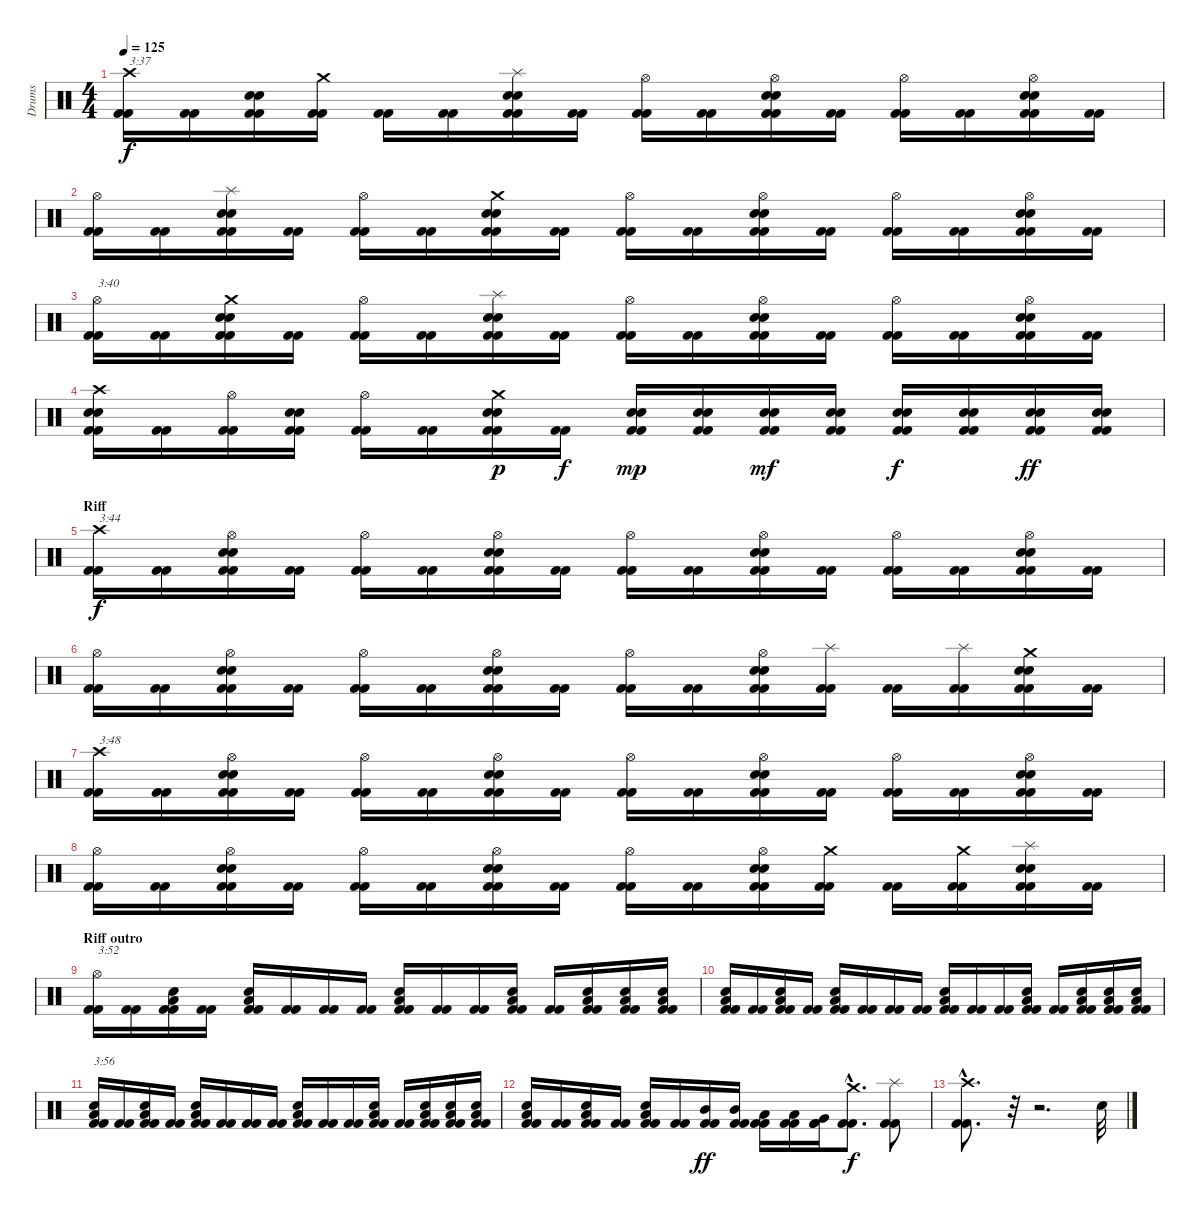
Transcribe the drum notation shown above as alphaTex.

\track ("Drums" "Drums") {instrument percussion}
\staff {score}
\articulation defaults
\ts (4 4)
\tempo 125
\clef neutral
\ks c
("Crash high (hit)" "Kick (hit) 2" "Kick (hit) 2").16{txt "3:37" dy f} ("Kick (hit) 2" "Kick (hit) 2").16 ("Snare (hit) 2" "Snare (hit) 2" "Kick (hit) 2" "Kick (hit) 2").16 ("Crash medium (hit)" "Kick (hit) 2" "Kick (hit) 2").16 ("Kick (hit) 2" "Kick (hit) 2").16 ("Kick (hit) 2" "Kick (hit) 2").16 ("Splash (hit)" "Snare (hit) 2" "Snare (hit) 2" "Kick (hit) 2" "Kick (hit) 2").16 ("Kick (hit) 2" "Kick (hit) 2").16 ("Hi-Hat (open)" "Kick (hit) 2" "Kick (hit) 2").16 ("Kick (hit) 2" "Kick (hit) 2").16 ("Hi-Hat (open)" "Snare (hit) 2" "Snare (hit) 2" "Kick (hit) 2" "Kick (hit) 2").16 ("Kick (hit) 2" "Kick (hit) 2").16 ("Hi-Hat (open)" "Kick (hit) 2" "Kick (hit) 2").16 ("Kick (hit) 2" "Kick (hit) 2").16 ("Hi-Hat (open)" "Snare (hit) 2" "Snare (hit) 2" "Kick (hit) 2" "Kick (hit) 2").16 ("Kick (hit) 2" "Kick (hit) 2").16 |
("Hi-Hat (open)" "Kick (hit) 2" "Kick (hit) 2").16 ("Kick (hit) 2" "Kick (hit) 2").16 ("Splash (hit)" "Snare (hit) 2" "Snare (hit) 2" "Kick (hit) 2" "Kick (hit) 2").16 ("Kick (hit) 2" "Kick (hit) 2").16 ("Hi-Hat (open)" "Kick (hit) 2" "Kick (hit) 2").16 ("Kick (hit) 2" "Kick (hit) 2").16 ("Crash medium (hit)" "Snare (hit) 2" "Snare (hit) 2" "Kick (hit) 2" "Kick (hit) 2").16 ("Kick (hit) 2" "Kick (hit) 2").16 ("Hi-Hat (open)" "Kick (hit) 2" "Kick (hit) 2").16 ("Kick (hit) 2" "Kick (hit) 2").16 ("Hi-Hat (open)" "Snare (hit) 2" "Snare (hit) 2" "Kick (hit) 2" "Kick (hit) 2").16 ("Kick (hit) 2" "Kick (hit) 2").16 ("Hi-Hat (open)" "Kick (hit) 2" "Kick (hit) 2").16 ("Kick (hit) 2" "Kick (hit) 2").16 ("Hi-Hat (open)" "Snare (hit) 2" "Snare (hit) 2" "Kick (hit) 2" "Kick (hit) 2").16 ("Kick (hit) 2" "Kick (hit) 2").16 |
("Hi-Hat (open)" "Kick (hit) 2" "Kick (hit) 2").16{txt "3:40"} ("Kick (hit) 2" "Kick (hit) 2").16 ("Crash medium (hit)" "Snare (hit) 2" "Snare (hit) 2" "Kick (hit) 2" "Kick (hit) 2").16 ("Kick (hit) 2" "Kick (hit) 2").16 ("Hi-Hat (open)" "Kick (hit) 2" "Kick (hit) 2").16 ("Kick (hit) 2" "Kick (hit) 2").16 ("Splash (hit)" "Snare (hit) 2" "Snare (hit) 2" "Kick (hit) 2" "Kick (hit) 2").16 ("Kick (hit) 2" "Kick (hit) 2").16 ("Hi-Hat (open)" "Kick (hit) 2" "Kick (hit) 2").16 ("Kick (hit) 2" "Kick (hit) 2").16 ("Hi-Hat (open)" "Snare (hit) 2" "Snare (hit) 2" "Kick (hit) 2" "Kick (hit) 2").16 ("Kick (hit) 2" "Kick (hit) 2").16 ("Hi-Hat (open)" "Kick (hit) 2" "Kick (hit) 2").16 ("Kick (hit) 2" "Kick (hit) 2").16 ("Hi-Hat (open)" "Snare (hit) 2" "Snare (hit) 2" "Kick (hit) 2" "Kick (hit) 2").16 ("Kick (hit) 2" "Kick (hit) 2").16 |
("Crash high (hit)" "Snare (hit) 2" "Snare (hit) 2" "Kick (hit) 2" "Kick (hit) 2").16 ("Kick (hit) 2" "Kick (hit) 2").16 ("Hi-Hat (open)" "Kick (hit) 2" "Kick (hit) 2").16 ("Snare (hit) 2" "Snare (hit) 2" "Kick (hit) 2" "Kick (hit) 2").16 ("Hi-Hat (open)" "Kick (hit) 2" "Kick (hit) 2").16 ("Kick (hit) 2" "Kick (hit) 2").16 ("Crash medium (hit)" "Snare (hit) 2" "Snare (hit) 2" "Kick (hit) 2" "Kick (hit) 2").16{dy p} ("Kick (hit) 2" "Kick (hit) 2").16{dy f} ("Snare (hit) 2" "Snare (hit) 2" "Kick (hit) 2" "Kick (hit) 2").16{dy mp} ("Snare (hit) 2" "Snare (hit) 2" "Kick (hit) 2" "Kick (hit) 2").16 ("Snare (hit) 2" "Snare (hit) 2" "Kick (hit) 2" "Kick (hit) 2").16{dy mf} ("Snare (hit) 2" "Snare (hit) 2" "Kick (hit) 2" "Kick (hit) 2").16 ("Snare (hit) 2" "Snare (hit) 2" "Kick (hit) 2" "Kick (hit) 2").16{dy f} ("Snare (hit) 2" "Snare (hit) 2" "Kick (hit) 2" "Kick (hit) 2").16 ("Snare (hit) 2" "Snare (hit) 2" "Kick (hit) 2" "Kick (hit) 2").16{dy ff} ("Snare (hit) 2" "Snare (hit) 2" "Kick (hit) 2" "Kick (hit) 2").16 |
\section ("" "Riff")
("Crash high (hit)" "Kick (hit) 2" "Kick (hit) 2").16{txt "3:44" dy f} ("Kick (hit) 2" "Kick (hit) 2").16 ("Hi-Hat (open)" "Snare (hit) 2" "Snare (hit) 2" "Kick (hit) 2" "Kick (hit) 2").16 ("Kick (hit) 2" "Kick (hit) 2").16 ("Hi-Hat (open)" "Kick (hit) 2" "Kick (hit) 2").16 ("Kick (hit) 2" "Kick (hit) 2").16 ("Hi-Hat (open)" "Snare (hit) 2" "Snare (hit) 2" "Kick (hit) 2" "Kick (hit) 2").16 ("Kick (hit) 2" "Kick (hit) 2").16 ("Hi-Hat (open)" "Kick (hit) 2" "Kick (hit) 2").16 ("Kick (hit) 2" "Kick (hit) 2").16 ("Hi-Hat (open)" "Snare (hit) 2" "Snare (hit) 2" "Kick (hit) 2" "Kick (hit) 2").16 ("Kick (hit) 2" "Kick (hit) 2").16 ("Hi-Hat (open)" "Kick (hit) 2" "Kick (hit) 2").16 ("Kick (hit) 2" "Kick (hit) 2").16 ("Hi-Hat (open)" "Snare (hit) 2" "Snare (hit) 2" "Kick (hit) 2" "Kick (hit) 2").16 ("Kick (hit) 2" "Kick (hit) 2").16 |
("Hi-Hat (open)" "Kick (hit) 2" "Kick (hit) 2").16 ("Kick (hit) 2" "Kick (hit) 2").16 ("Hi-Hat (open)" "Snare (hit) 2" "Snare (hit) 2" "Kick (hit) 2" "Kick (hit) 2").16 ("Kick (hit) 2" "Kick (hit) 2").16 ("Hi-Hat (open)" "Kick (hit) 2" "Kick (hit) 2").16 ("Kick (hit) 2" "Kick (hit) 2").16 ("Hi-Hat (open)" "Snare (hit) 2" "Snare (hit) 2" "Kick (hit) 2" "Kick (hit) 2").16 ("Kick (hit) 2" "Kick (hit) 2").16 ("Hi-Hat (open)" "Kick (hit) 2" "Kick (hit) 2").16 ("Kick (hit) 2" "Kick (hit) 2").16 ("Hi-Hat (open)" "Snare (hit) 2" "Snare (hit) 2" "Kick (hit) 2" "Kick (hit) 2").16 ("Splash (hit)" "Kick (hit) 2" "Kick (hit) 2").16 ("Kick (hit) 2" "Kick (hit) 2").16 ("Splash (hit)" "Kick (hit) 2" "Kick (hit) 2").16 ("Crash medium (hit)" "Snare (hit) 2" "Snare (hit) 2" "Kick (hit) 2" "Kick (hit) 2").16 ("Kick (hit) 2" "Kick (hit) 2").16 |
("Crash high (hit)" "Kick (hit) 2" "Kick (hit) 2").16{txt "3:48"} ("Kick (hit) 2" "Kick (hit) 2").16 ("Hi-Hat (open)" "Snare (hit) 2" "Snare (hit) 2" "Kick (hit) 2" "Kick (hit) 2").16 ("Kick (hit) 2" "Kick (hit) 2").16 ("Hi-Hat (open)" "Kick (hit) 2" "Kick (hit) 2").16 ("Kick (hit) 2" "Kick (hit) 2").16 ("Hi-Hat (open)" "Snare (hit) 2" "Snare (hit) 2" "Kick (hit) 2" "Kick (hit) 2").16 ("Kick (hit) 2" "Kick (hit) 2").16 ("Hi-Hat (open)" "Kick (hit) 2" "Kick (hit) 2").16 ("Kick (hit) 2" "Kick (hit) 2").16 ("Hi-Hat (open)" "Snare (hit) 2" "Snare (hit) 2" "Kick (hit) 2" "Kick (hit) 2").16 ("Kick (hit) 2" "Kick (hit) 2").16 ("Hi-Hat (open)" "Kick (hit) 2" "Kick (hit) 2").16 ("Kick (hit) 2" "Kick (hit) 2").16 ("Hi-Hat (open)" "Snare (hit) 2" "Snare (hit) 2" "Kick (hit) 2" "Kick (hit) 2").16 ("Kick (hit) 2" "Kick (hit) 2").16 |
("Hi-Hat (open)" "Kick (hit) 2" "Kick (hit) 2").16 ("Kick (hit) 2" "Kick (hit) 2").16 ("Hi-Hat (open)" "Snare (hit) 2" "Snare (hit) 2" "Kick (hit) 2" "Kick (hit) 2").16 ("Kick (hit) 2" "Kick (hit) 2").16 ("Hi-Hat (open)" "Kick (hit) 2" "Kick (hit) 2").16 ("Kick (hit) 2" "Kick (hit) 2").16 ("Hi-Hat (open)" "Snare (hit) 2" "Snare (hit) 2" "Kick (hit) 2" "Kick (hit) 2").16 ("Kick (hit) 2" "Kick (hit) 2").16 ("Hi-Hat (open)" "Kick (hit) 2" "Kick (hit) 2").16 ("Kick (hit) 2" "Kick (hit) 2").16 ("Hi-Hat (open)" "Snare (hit) 2" "Snare (hit) 2" "Kick (hit) 2" "Kick (hit) 2").16 ("Crash medium (hit)" "Kick (hit) 2" "Kick (hit) 2").16 ("Kick (hit) 2" "Kick (hit) 2").16 ("Crash medium (hit)" "Kick (hit) 2" "Kick (hit) 2").16 ("Splash (hit)" "Snare (hit) 2" "Snare (hit) 2" "Kick (hit) 2" "Kick (hit) 2").16 ("Kick (hit) 2" "Kick (hit) 2").16 |
\section ("" "Riff outro")
("Hi-Hat (open)" "Kick (hit) 2" "Kick (hit) 2").16{txt "3:52"} ("Kick (hit) 2" "Kick (hit) 2").16 ("Low Floor Tom (hit)" "Snare (hit) 2" "Kick (hit) 2" "Kick (hit) 2").16 ("Kick (hit) 2" "Kick (hit) 2").16 ("Low Floor Tom (hit)" "Snare (hit) 2" "Kick (hit) 2" "Kick (hit) 2").16 ("Kick (hit) 2" "Kick (hit) 2").16 ("Kick (hit) 2" "Kick (hit) 2").16 ("Kick (hit) 2" "Kick (hit) 2").16 ("Low Floor Tom (hit)" "Snare (hit) 2" "Kick (hit) 2" "Kick (hit) 2").16 ("Kick (hit) 2" "Kick (hit) 2").16 ("Kick (hit) 2" "Kick (hit) 2").16 ("Low Floor Tom (hit)" "Snare (hit) 2" "Kick (hit) 2" "Kick (hit) 2").16 ("Kick (hit) 2" "Kick (hit) 2").16 ("Low Floor Tom (hit)" "Snare (hit) 2" "Kick (hit) 2" "Kick (hit) 2").16 ("Low Floor Tom (hit)" "Snare (hit) 2" "Kick (hit) 2" "Kick (hit) 2").16 ("Low Floor Tom (hit)" "Snare (hit) 2" "Kick (hit) 2" "Kick (hit) 2").16 |
("Low Floor Tom (hit)" "Snare (hit) 2" "Kick (hit) 2" "Kick (hit) 2").16 ("Kick (hit) 2" "Kick (hit) 2").16 ("Low Floor Tom (hit)" "Snare (hit) 2" "Kick (hit) 2" "Kick (hit) 2").16 ("Kick (hit) 2" "Kick (hit) 2").16 ("Low Floor Tom (hit)" "Snare (hit) 2" "Kick (hit) 2" "Kick (hit) 2").16 ("Kick (hit) 2" "Kick (hit) 2").16 ("Kick (hit) 2" "Kick (hit) 2").16 ("Kick (hit) 2" "Kick (hit) 2").16 ("Low Floor Tom (hit)" "Snare (hit) 2" "Kick (hit) 2" "Kick (hit) 2").16 ("Kick (hit) 2" "Kick (hit) 2").16 ("Kick (hit) 2" "Kick (hit) 2").16 ("Low Floor Tom (hit)" "Snare (hit) 2" "Kick (hit) 2" "Kick (hit) 2").16 ("Kick (hit) 2" "Kick (hit) 2").16 ("Low Floor Tom (hit)" "Snare (hit) 2" "Kick (hit) 2" "Kick (hit) 2").16 ("Low Floor Tom (hit)" "Snare (hit) 2" "Kick (hit) 2" "Kick (hit) 2").16 ("Low Floor Tom (hit)" "Snare (hit) 2" "Kick (hit) 2" "Kick (hit) 2").16 |
("Low Floor Tom (hit)" "Snare (hit) 2" "Kick (hit) 2" "Kick (hit) 2").16{txt "3:56"} ("Kick (hit) 2" "Kick (hit) 2").16 ("Low Floor Tom (hit)" "Snare (hit) 2" "Kick (hit) 2" "Kick (hit) 2").16 ("Kick (hit) 2" "Kick (hit) 2").16 ("Low Floor Tom (hit)" "Snare (hit) 2" "Kick (hit) 2" "Kick (hit) 2").16 ("Kick (hit) 2" "Kick (hit) 2").16 ("Kick (hit) 2" "Kick (hit) 2").16 ("Kick (hit) 2" "Kick (hit) 2").16 ("Low Floor Tom (hit)" "Snare (hit) 2" "Kick (hit) 2" "Kick (hit) 2").16 ("Kick (hit) 2" "Kick (hit) 2").16 ("Kick (hit) 2" "Kick (hit) 2").16 ("Low Floor Tom (hit)" "Snare (hit) 2" "Kick (hit) 2" "Kick (hit) 2").16 ("Kick (hit) 2" "Kick (hit) 2").16 ("Low Floor Tom (hit)" "Snare (hit) 2" "Kick (hit) 2" "Kick (hit) 2").16 ("Low Floor Tom (hit)" "Snare (hit) 2" "Kick (hit) 2" "Kick (hit) 2").16 ("Low Floor Tom (hit)" "Snare (hit) 2" "Kick (hit) 2" "Kick (hit) 2").16 |
("Low Floor Tom (hit)" "Snare (hit) 2" "Kick (hit) 2" "Kick (hit) 2").16 ("Kick (hit) 2" "Kick (hit) 2").16 ("Low Floor Tom (hit)" "Snare (hit) 2" "Kick (hit) 2" "Kick (hit) 2").16 ("Kick (hit) 2" "Kick (hit) 2").16 ("Low Floor Tom (hit)" "Snare (hit) 2" "Kick (hit) 2" "Kick (hit) 2").16 ("Kick (hit) 2" "Kick (hit) 2").16 ("Mid Tom (hit)" "Kick (hit) 2" "Kick (hit) 2").16{dy ff} ("Mid Tom (hit)" "Kick (hit) 2" "Kick (hit) 2").16 ("Low Tom (hit)" "Kick (hit) 2" "Kick (hit) 2").16 ("Low Tom (hit)" "Kick (hit) 2" "Kick (hit) 2").16 ("Very Low Tom (hit)" "Kick (hit) 2" "Kick (hit) 2").16 ("Crash medium (hit)"{hac} "Kick (hit) 2"{hac} "Kick (hit) 2"{hac}).8{d dy f} ("Splash (hit)" "Kick (hit) 2" "Kick (hit) 2").8 |
("Crash high (hit)"{hac} "Kick (hit) 2"{hac} "Kick (hit) 2"{hac}).8{d} r.32 r.2{d} "Snare (hit)"{x}.32
